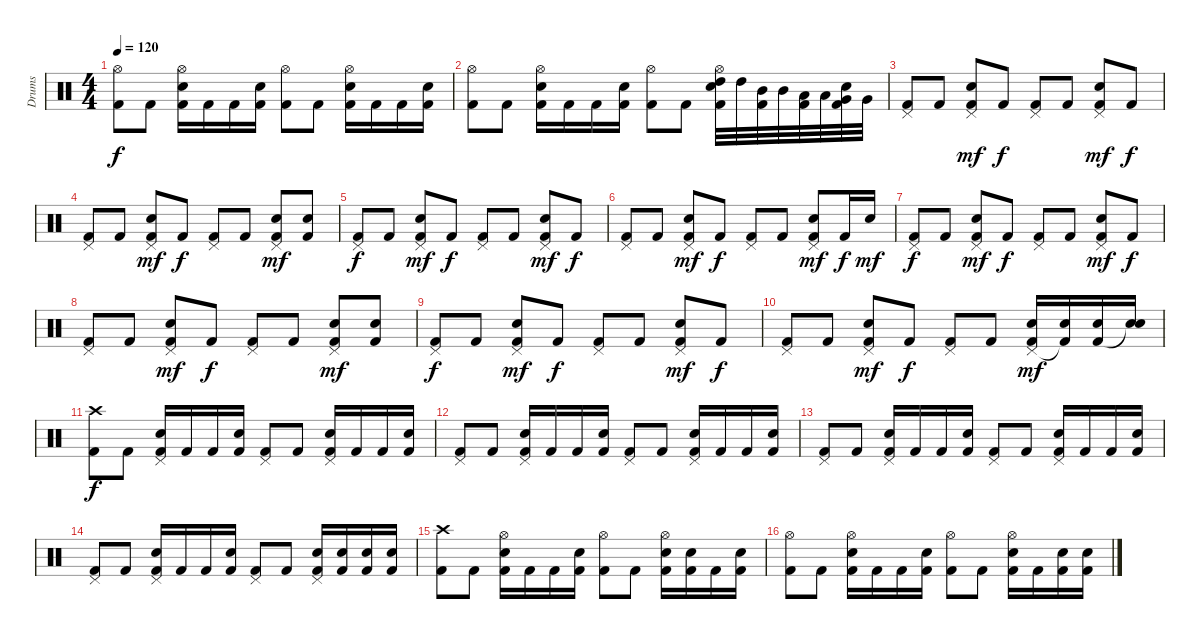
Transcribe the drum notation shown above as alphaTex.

\track ("Drums" "Drums") {instrument percussion}
\staff {score}
\articulation defaults
\ts (4 4)
\tempo 120
\clef neutral
\ks c
("Hi-Hat (open)" "Kick (hit) 2").8{dy f} "Kick (hit) 2".8 ("Hi-Hat (open)" "Electric Snare (hit)" "Kick (hit) 2").16 "Kick (hit) 2".16 "Kick (hit) 2".16 ("Electric Snare (hit)" "Kick (hit) 2").16 ("Hi-Hat (open)" "Kick (hit) 2").8 "Kick (hit) 2".8 ("Hi-Hat (open)" "Electric Snare (hit)" "Kick (hit) 2").16 "Kick (hit) 2".16 "Kick (hit) 2".16 ("Electric Snare (hit)" "Kick (hit) 2").16 |
("Hi-Hat (open)" "Kick (hit) 2").8 "Kick (hit) 2".8 ("Hi-Hat (open)" "Electric Snare (hit)" "Kick (hit) 2").16 "Kick (hit) 2".16 "Kick (hit) 2".16 ("Electric Snare (hit)" "Kick (hit) 2").16 ("Hi-Hat (open)" "Kick (hit) 2").8 "Kick (hit) 2".8 ("Hi-Hat (open)" "Electric Snare (hit)" "High Tom (hit)" "Kick (hit) 2").32 "High Tom (hit)".32 ("Mid Tom (hit)" "Kick (hit) 2").32 "Mid Tom (hit)".32 ("Low Tom (hit)" "Kick (hit) 2").32 "Low Tom (hit)".32 ("Electric Snare (hit)" "Very Low Tom (hit)" "Kick (hit) 2").32 "Very Low Tom (hit)".32 |
("Pedal Hi-Hat (hit)" "Kick (hit) 2").8 "Kick (hit) 2".8 ("Electric Snare (hit)" "Pedal Hi-Hat (hit)" "Kick (hit) 2").8{dy mf} "Kick (hit) 2".8{dy f} ("Pedal Hi-Hat (hit)" "Kick (hit) 2").8 "Kick (hit) 2".8 ("Electric Snare (hit)" "Pedal Hi-Hat (hit)" "Kick (hit) 2").8{dy mf} "Kick (hit) 2".8{dy f} |
("Pedal Hi-Hat (hit)" "Kick (hit) 2").8 "Kick (hit) 2".8 ("Electric Snare (hit)" "Pedal Hi-Hat (hit)" "Kick (hit) 2").8{dy mf} "Kick (hit) 2".8{dy f} ("Pedal Hi-Hat (hit)" "Kick (hit) 2").8 "Kick (hit) 2".8 ("Electric Snare (hit)" "Pedal Hi-Hat (hit)" "Kick (hit) 2").8{dy mf} ("Electric Snare (hit)" "Kick (hit) 2").8 |
("Pedal Hi-Hat (hit)" "Kick (hit) 2").8{dy f} "Kick (hit) 2".8 ("Electric Snare (hit)" "Pedal Hi-Hat (hit)" "Kick (hit) 2").8{dy mf} "Kick (hit) 2".8{dy f} ("Pedal Hi-Hat (hit)" "Kick (hit) 2").8 "Kick (hit) 2".8 ("Electric Snare (hit)" "Pedal Hi-Hat (hit)" "Kick (hit) 2").8{dy mf} "Kick (hit) 2".8{dy f} |
("Pedal Hi-Hat (hit)" "Kick (hit) 2").8 "Kick (hit) 2".8 ("Electric Snare (hit)" "Pedal Hi-Hat (hit)" "Kick (hit) 2").8{dy mf} "Kick (hit) 2".8{dy f} ("Pedal Hi-Hat (hit)" "Kick (hit) 2").8 "Kick (hit) 2".8 ("Electric Snare (hit)" "Pedal Hi-Hat (hit)" "Kick (hit) 2").8{dy mf} "Kick (hit) 2".16{dy f} "Electric Snare (hit)".16{dy mf} |
("Pedal Hi-Hat (hit)" "Kick (hit) 2").8{dy f} "Kick (hit) 2".8 ("Electric Snare (hit)" "Pedal Hi-Hat (hit)" "Kick (hit) 2").8{dy mf} "Kick (hit) 2".8{dy f} ("Pedal Hi-Hat (hit)" "Kick (hit) 2").8 "Kick (hit) 2".8 ("Electric Snare (hit)" "Pedal Hi-Hat (hit)" "Kick (hit) 2").8{dy mf} "Kick (hit) 2".8{dy f} |
("Pedal Hi-Hat (hit)" "Kick (hit) 2").8 "Kick (hit) 2".8 ("Electric Snare (hit)" "Pedal Hi-Hat (hit)" "Kick (hit) 2").8{dy mf} "Kick (hit) 2".8{dy f} ("Pedal Hi-Hat (hit)" "Kick (hit) 2").8 "Kick (hit) 2".8 ("Electric Snare (hit)" "Pedal Hi-Hat (hit)" "Kick (hit) 2").8{dy mf} ("Electric Snare (hit)" "Kick (hit) 2").8 |
("Pedal Hi-Hat (hit)" "Kick (hit) 2").8{dy f} "Kick (hit) 2".8 ("Electric Snare (hit)" "Pedal Hi-Hat (hit)" "Kick (hit) 2").8{dy mf} "Kick (hit) 2".8{dy f} ("Pedal Hi-Hat (hit)" "Kick (hit) 2").8 "Kick (hit) 2".8 ("Electric Snare (hit)" "Pedal Hi-Hat (hit)" "Kick (hit) 2").8{dy mf} "Kick (hit) 2".8{dy f} |
("Pedal Hi-Hat (hit)" "Kick (hit) 2").8 "Kick (hit) 2".8 ("Electric Snare (hit)" "Pedal Hi-Hat (hit)" "Kick (hit) 2").8{dy mf} "Kick (hit) 2".8{dy f} ("Pedal Hi-Hat (hit)" "Kick (hit) 2").8 "Kick (hit) 2".8 ("Electric Snare (hit)" "Pedal Hi-Hat (hit)" "Kick (hit) 2").16{dy mf} ("Electric Snare (hit)" "Kick (hit) 2"{t}).16 ("Electric Snare (hit)" "Kick (hit) 2").16 ("Electric Snare (hit)" "Snare (hit)"{t}).16 |
("Crash high (hit)" "Kick (hit) 2").8{dy f} "Kick (hit) 2".8 ("Pedal Hi-Hat (hit)" "Electric Snare (hit)" "Kick (hit) 2").16 "Kick (hit) 2".16 "Kick (hit) 2".16 ("Electric Snare (hit)" "Kick (hit) 2").16 ("Pedal Hi-Hat (hit)" "Kick (hit) 2").8 "Kick (hit) 2".8 ("Pedal Hi-Hat (hit)" "Electric Snare (hit)" "Kick (hit) 2").16 "Kick (hit) 2".16 "Kick (hit) 2".16 ("Electric Snare (hit)" "Kick (hit) 2").16 |
("Pedal Hi-Hat (hit)" "Kick (hit) 2").8 "Kick (hit) 2".8 ("Pedal Hi-Hat (hit)" "Electric Snare (hit)" "Kick (hit) 2").16 "Kick (hit) 2".16 "Kick (hit) 2".16 ("Electric Snare (hit)" "Kick (hit) 2").16 ("Pedal Hi-Hat (hit)" "Kick (hit) 2").8 "Kick (hit) 2".8 ("Pedal Hi-Hat (hit)" "Electric Snare (hit)" "Kick (hit) 2").16 "Kick (hit) 2".16 "Kick (hit) 2".16 ("Electric Snare (hit)" "Kick (hit) 2").16 |
("Pedal Hi-Hat (hit)" "Kick (hit) 2").8 "Kick (hit) 2".8 ("Pedal Hi-Hat (hit)" "Electric Snare (hit)" "Kick (hit) 2").16 "Kick (hit) 2".16 "Kick (hit) 2".16 ("Electric Snare (hit)" "Kick (hit) 2").16 ("Pedal Hi-Hat (hit)" "Kick (hit) 2").8 "Kick (hit) 2".8 ("Pedal Hi-Hat (hit)" "Electric Snare (hit)" "Kick (hit) 2").16 "Kick (hit) 2".16 "Kick (hit) 2".16 ("Electric Snare (hit)" "Kick (hit) 2").16 |
("Pedal Hi-Hat (hit)" "Kick (hit) 2").8 "Kick (hit) 2".8 ("Pedal Hi-Hat (hit)" "Electric Snare (hit)" "Kick (hit) 2").16 "Kick (hit) 2".16 "Kick (hit) 2".16 ("Electric Snare (hit)" "Kick (hit) 2").16 ("Pedal Hi-Hat (hit)" "Kick (hit) 2").8 "Kick (hit) 2".8 ("Pedal Hi-Hat (hit)" "Electric Snare (hit)" "Kick (hit) 2").16 ("Electric Snare (hit)" "Kick (hit) 2").16 ("Electric Snare (hit)" "Kick (hit) 2").16 ("Electric Snare (hit)" "Kick (hit) 2").16 |
("Crash high (hit)" "Kick (hit) 2").8 "Kick (hit) 2".8 ("Hi-Hat (open)" "Electric Snare (hit)" "Kick (hit) 2").16 "Kick (hit) 2".16 "Kick (hit) 2".16 ("Electric Snare (hit)" "Kick (hit) 2").16 ("Hi-Hat (open)" "Kick (hit) 2").8 "Kick (hit) 2".8 ("Hi-Hat (open)" "Electric Snare (hit)" "Kick (hit) 2").16 ("Electric Snare (hit)" "Kick (hit) 2").16 "Kick (hit) 2".16 ("Electric Snare (hit)" "Kick (hit) 2").16 |
("Hi-Hat (open)" "Kick (hit) 2").8 "Kick (hit) 2".8 ("Hi-Hat (open)" "Electric Snare (hit)" "Kick (hit) 2").16 "Kick (hit) 2".16 "Kick (hit) 2".16 ("Electric Snare (hit)" "Kick (hit) 2").16 ("Hi-Hat (open)" "Kick (hit) 2").8 "Kick (hit) 2".8 ("Hi-Hat (open)" "Electric Snare (hit)" "Kick (hit) 2").16 "Kick (hit) 2".16 ("Electric Snare (hit)" "Kick (hit) 2").16 ("Electric Snare (hit)" "Kick (hit) 2").16
